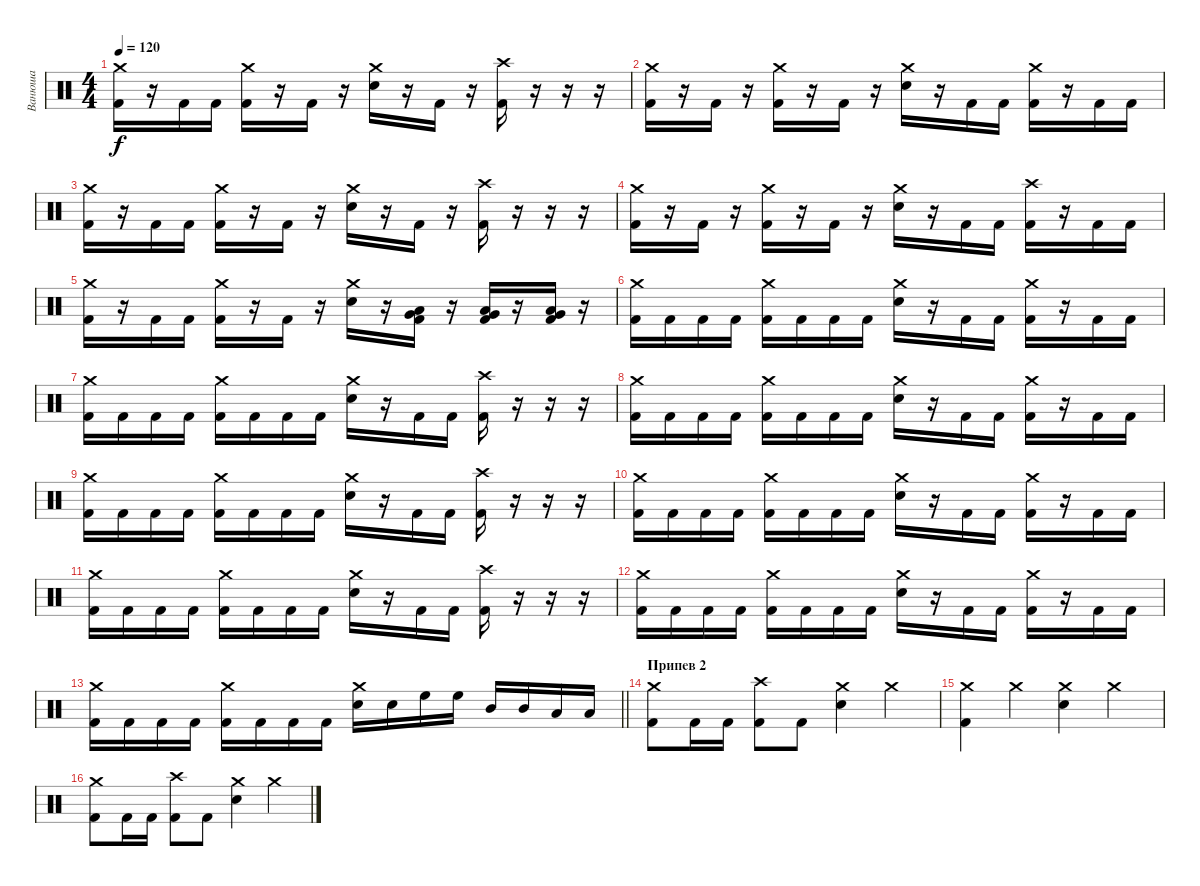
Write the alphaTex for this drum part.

\track ("Ванюша" "Ванюша") {instrument percussion}
\staff {score}
\articulation defaults
\ts (4 4)
\tempo 120
\clef neutral
\ks c
("Crash medium (hit)" "Kick (hit) 2").16{dy f} r.16 "Kick (hit) 2".16 "Kick (hit) 2".16 ("Crash medium (hit)" "Kick (hit) 2").16 r.16 "Kick (hit) 2".16 r.16 ("Crash medium (hit)" "Snare (hit) 2").16 r.16 "Kick (hit) 2".16 r.16 ("Crash high (hit)" "Kick (hit) 2").16 r.16 r.16 r.16 |
("Crash medium (hit)" "Kick (hit) 2").16 r.16 "Kick (hit) 2".16 r.16 ("Crash medium (hit)" "Kick (hit) 2").16 r.16 "Kick (hit) 2".16 r.16 ("Crash medium (hit)" "Snare (hit) 2").16 r.16 "Kick (hit) 2".16 "Kick (hit) 2".16 ("Crash medium (hit)" "Kick (hit) 2").16 r.16 "Kick (hit) 2".16 "Kick (hit) 2".16 |
("Crash medium (hit)" "Kick (hit) 2").16 r.16 "Kick (hit) 2".16 "Kick (hit) 2".16 ("Crash medium (hit)" "Kick (hit) 2").16 r.16 "Kick (hit) 2".16 r.16 ("Crash medium (hit)" "Snare (hit) 2").16 r.16 "Kick (hit) 2".16 r.16 ("Crash high (hit)" "Kick (hit) 2").16 r.16 r.16 r.16 |
("Crash medium (hit)" "Kick (hit) 2").16 r.16 "Kick (hit) 2".16 r.16 ("Crash medium (hit)" "Kick (hit) 2").16 r.16 "Kick (hit) 2".16 r.16 ("Crash medium (hit)" "Snare (hit) 2").16 r.16 "Kick (hit) 2".16 "Kick (hit) 2".16 ("Crash high (hit)" "Kick (hit) 2").16 r.16 "Kick (hit) 2".16 "Kick (hit) 2".16 |
("Crash medium (hit)" "Kick (hit) 2").16 r.16 "Kick (hit) 2".16 "Kick (hit) 2".16 ("Crash medium (hit)" "Kick (hit) 2").16 r.16 "Kick (hit) 2".16 r.16 ("Crash medium (hit)" "Snare (hit) 2").16 r.16 ("Very Low Tom (hit)" "Low Tom (hit)" "Kick (hit) 2").16 r.16 ("Very Low Tom (hit)" "Low Tom (hit)" "Kick (hit) 2").16 r.16 ("Very Low Tom (hit)" "Low Tom (hit)" "Kick (hit) 2").16 r.16 |
("Crash medium (hit)" "Kick (hit) 2").16 "Kick (hit) 2".16 "Kick (hit) 2".16 "Kick (hit) 2".16 ("Crash medium (hit)" "Kick (hit) 2").16 "Kick (hit) 2".16 "Kick (hit) 2".16 "Kick (hit) 2".16 ("Crash medium (hit)" "Snare (hit) 2").16 r.16 "Kick (hit) 2".16 "Kick (hit) 2".16 ("Crash medium (hit)" "Kick (hit) 2").16 r.16 "Kick (hit) 2".16 "Kick (hit) 2".16 |
("Crash medium (hit)" "Kick (hit) 2").16 "Kick (hit) 2".16 "Kick (hit) 2".16 "Kick (hit) 2".16 ("Crash medium (hit)" "Kick (hit) 2").16 "Kick (hit) 2".16 "Kick (hit) 2".16 "Kick (hit) 2".16 ("Crash medium (hit)" "Snare (hit) 2").16 r.16 "Kick (hit) 2".16 "Kick (hit) 2".16 ("Crash high (hit)" "Kick (hit) 2").16 r.16 r.16 r.16 |
("Crash medium (hit)" "Kick (hit) 2").16 "Kick (hit) 2".16 "Kick (hit) 2".16 "Kick (hit) 2".16 ("Crash medium (hit)" "Kick (hit) 2").16 "Kick (hit) 2".16 "Kick (hit) 2".16 "Kick (hit) 2".16 ("Crash medium (hit)" "Snare (hit) 2").16 r.16 "Kick (hit) 2".16 "Kick (hit) 2".16 ("Crash medium (hit)" "Kick (hit) 2").16 r.16 "Kick (hit) 2".16 "Kick (hit) 2".16 |
("Crash medium (hit)" "Kick (hit) 2").16 "Kick (hit) 2".16 "Kick (hit) 2".16 "Kick (hit) 2".16 ("Crash medium (hit)" "Kick (hit) 2").16 "Kick (hit) 2".16 "Kick (hit) 2".16 "Kick (hit) 2".16 ("Crash medium (hit)" "Snare (hit) 2").16 r.16 "Kick (hit) 2".16 "Kick (hit) 2".16 ("Crash high (hit)" "Kick (hit) 2").16 r.16 r.16 r.16 |
("Crash medium (hit)" "Kick (hit) 2").16 "Kick (hit) 2".16 "Kick (hit) 2".16 "Kick (hit) 2".16 ("Crash medium (hit)" "Kick (hit) 2").16 "Kick (hit) 2".16 "Kick (hit) 2".16 "Kick (hit) 2".16 ("Crash medium (hit)" "Snare (hit) 2").16 r.16 "Kick (hit) 2".16 "Kick (hit) 2".16 ("Crash medium (hit)" "Kick (hit) 2").16 r.16 "Kick (hit) 2".16 "Kick (hit) 2".16 |
("Crash medium (hit)" "Kick (hit) 2").16 "Kick (hit) 2".16 "Kick (hit) 2".16 "Kick (hit) 2".16 ("Crash medium (hit)" "Kick (hit) 2").16 "Kick (hit) 2".16 "Kick (hit) 2".16 "Kick (hit) 2".16 ("Crash medium (hit)" "Snare (hit) 2").16 r.16 "Kick (hit) 2".16 "Kick (hit) 2".16 ("Crash high (hit)" "Kick (hit) 2").16 r.16 r.16 r.16 |
("Crash medium (hit)" "Kick (hit) 2").16 "Kick (hit) 2".16 "Kick (hit) 2".16 "Kick (hit) 2".16 ("Crash medium (hit)" "Kick (hit) 2").16 "Kick (hit) 2".16 "Kick (hit) 2".16 "Kick (hit) 2".16 ("Crash medium (hit)" "Snare (hit) 2").16 r.16 "Kick (hit) 2".16 "Kick (hit) 2".16 ("Crash medium (hit)" "Kick (hit) 2").16 r.16 "Kick (hit) 2".16 "Kick (hit) 2".16 |
\barLineRight lightlight
("Crash medium (hit)" "Kick (hit) 2").16 "Kick (hit) 2".16 "Kick (hit) 2".16 "Kick (hit) 2".16 ("Crash medium (hit)" "Kick (hit) 2").16 "Kick (hit) 2".16 "Kick (hit) 2".16 "Kick (hit) 2".16 ("Crash medium (hit)" "Snare (hit) 2").16 "Snare (hit) 2".16 "High Floor Tom (hit)".16 "High Floor Tom (hit)".16 "Mid Tom (hit)".16 "Mid Tom (hit)".16 "Low Tom (hit)".16 "Low Tom (hit)".16 |
\section ("" "Припев 2")
("Crash medium (hit)" "Kick (hit) 2").8 "Kick (hit) 2".16 "Kick (hit) 2".16 ("Crash high (hit)" "Kick (hit) 2").8 "Kick (hit) 2".8 ("Crash medium (hit)" "Snare (hit) 2").4 "Crash medium (hit)".4 |
("Crash medium (hit)" "Kick (hit) 2").4 "Crash medium (hit)".4 ("Crash medium (hit)" "Snare (hit) 2").4 "Crash medium (hit)".4 |
("Crash medium (hit)" "Kick (hit) 2").8 "Kick (hit) 2".16 "Kick (hit) 2".16 ("Crash high (hit)" "Kick (hit) 2").8 "Kick (hit) 2".8 ("Crash medium (hit)" "Snare (hit) 2").4 "Crash medium (hit)".4
